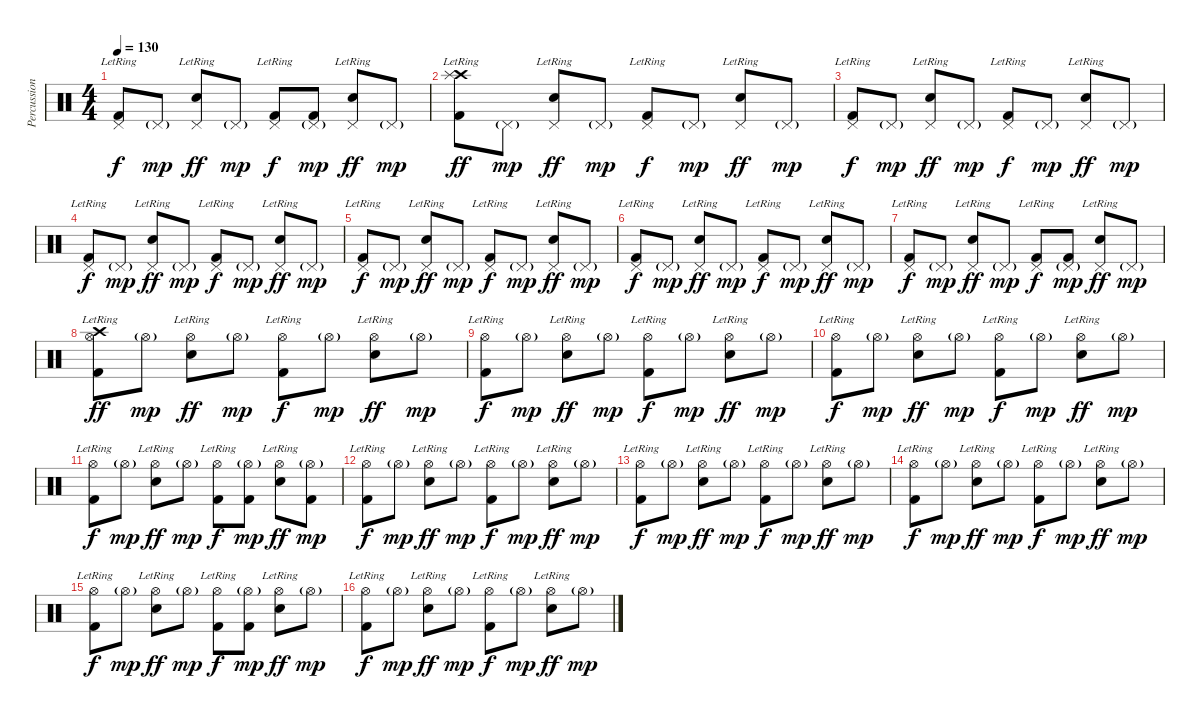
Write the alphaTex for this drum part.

\track ("Percussion" "Percussion") {instrument percussion}
\staff {score}
\articulation defaults
\ts (4 4)
\tempo 130
\clef neutral
\ks c
("Pedal Hi-Hat (hit)"{lr} "Kick (hit) 2").8{dy f} "Pedal Hi-Hat (hit)"{g}.8{dy mp} ("Pedal Hi-Hat (hit)"{lr} "Snare (hit) 2").8{dy ff} "Pedal Hi-Hat (hit)"{g}.8{dy mp} ("Pedal Hi-Hat (hit)"{lr} "Kick (hit) 2").8{dy f} ("Pedal Hi-Hat (hit)"{g} "Kick (hit) 2").8{dy mp} ("Pedal Hi-Hat (hit)"{lr} "Snare (hit) 2").8{dy ff} "Pedal Hi-Hat (hit)"{g}.8{dy mp} |
("Crash high (hit)"{lr} "Splash (hit)"{lr} "Kick (hit) 2").8{dy ff} "Pedal Hi-Hat (hit)"{g}.8{dy mp} ("Pedal Hi-Hat (hit)"{lr} "Snare (hit) 2").8{dy ff} "Pedal Hi-Hat (hit)"{g}.8{dy mp} ("Pedal Hi-Hat (hit)"{lr} "Kick (hit) 2").8{dy f} "Pedal Hi-Hat (hit)"{g}.8{dy mp} ("Pedal Hi-Hat (hit)"{lr} "Snare (hit) 2").8{dy ff} "Pedal Hi-Hat (hit)"{g}.8{dy mp} |
("Pedal Hi-Hat (hit)"{lr} "Kick (hit) 2").8{dy f} "Pedal Hi-Hat (hit)"{g}.8{dy mp} ("Pedal Hi-Hat (hit)"{lr} "Snare (hit) 2").8{dy ff} "Pedal Hi-Hat (hit)"{g}.8{dy mp} ("Pedal Hi-Hat (hit)"{lr} "Kick (hit) 2").8{dy f} "Pedal Hi-Hat (hit)"{g}.8{dy mp} ("Pedal Hi-Hat (hit)"{lr} "Snare (hit) 2").8{dy ff} "Pedal Hi-Hat (hit)"{g}.8{dy mp} |
("Pedal Hi-Hat (hit)"{lr} "Kick (hit) 2").8{dy f} "Pedal Hi-Hat (hit)"{g}.8{dy mp} ("Pedal Hi-Hat (hit)"{lr} "Snare (hit) 2").8{dy ff} "Pedal Hi-Hat (hit)"{g}.8{dy mp} ("Pedal Hi-Hat (hit)"{lr} "Kick (hit) 2").8{dy f} "Pedal Hi-Hat (hit)"{g}.8{dy mp} ("Pedal Hi-Hat (hit)"{lr} "Snare (hit) 2").8{dy ff} "Pedal Hi-Hat (hit)"{g}.8{dy mp} |
("Pedal Hi-Hat (hit)"{lr} "Kick (hit) 2").8{dy f} "Pedal Hi-Hat (hit)"{g}.8{dy mp} ("Pedal Hi-Hat (hit)"{lr} "Snare (hit) 2").8{dy ff} "Pedal Hi-Hat (hit)"{g}.8{dy mp} ("Pedal Hi-Hat (hit)"{lr} "Kick (hit) 2").8{dy f} "Pedal Hi-Hat (hit)"{g}.8{dy mp} ("Pedal Hi-Hat (hit)"{lr} "Snare (hit) 2").8{dy ff} "Pedal Hi-Hat (hit)"{g}.8{dy mp} |
("Pedal Hi-Hat (hit)"{lr} "Kick (hit) 2").8{dy f} "Pedal Hi-Hat (hit)"{g}.8{dy mp} ("Pedal Hi-Hat (hit)"{lr} "Snare (hit) 2").8{dy ff} "Pedal Hi-Hat (hit)"{g}.8{dy mp} ("Pedal Hi-Hat (hit)"{lr} "Kick (hit) 2").8{dy f} "Pedal Hi-Hat (hit)"{g}.8{dy mp} ("Pedal Hi-Hat (hit)"{lr} "Snare (hit) 2").8{dy ff} "Pedal Hi-Hat (hit)"{g}.8{dy mp} |
("Pedal Hi-Hat (hit)"{lr} "Kick (hit) 2").8{dy f} "Pedal Hi-Hat (hit)"{g}.8{dy mp} ("Pedal Hi-Hat (hit)"{lr} "Snare (hit) 2").8{dy ff} "Pedal Hi-Hat (hit)"{g}.8{dy mp} ("Pedal Hi-Hat (hit)"{lr} "Kick (hit) 2").8{dy f} ("Pedal Hi-Hat (hit)"{g} "Kick (hit) 2").8{dy mp} ("Pedal Hi-Hat (hit)"{lr} "Snare (hit) 2").8{dy ff} "Pedal Hi-Hat (hit)"{g}.8{dy mp} |
("Hi-Hat (open)"{lr} "Crash high (hit)" "Kick (hit) 2").8{dy ff} "Hi-Hat (open)"{g}.8{dy mp} ("Hi-Hat (open)"{lr} "Snare (hit) 2").8{dy ff} "Hi-Hat (open)"{g}.8{dy mp} ("Hi-Hat (open)"{lr} "Kick (hit) 2").8{dy f} "Hi-Hat (open)"{g}.8{dy mp} ("Hi-Hat (open)"{lr} "Snare (hit) 2").8{dy ff} "Hi-Hat (open)"{g}.8{dy mp} |
("Hi-Hat (open)"{lr} "Kick (hit) 2").8{dy f} "Hi-Hat (open)"{g}.8{dy mp} ("Hi-Hat (open)"{lr} "Snare (hit) 2").8{dy ff} "Hi-Hat (open)"{g}.8{dy mp} ("Hi-Hat (open)"{lr} "Kick (hit) 2").8{dy f} "Hi-Hat (open)"{g}.8{dy mp} ("Hi-Hat (open)"{lr} "Snare (hit) 2").8{dy ff} "Hi-Hat (open)"{g}.8{dy mp} |
("Hi-Hat (open)"{lr} "Kick (hit) 2").8{dy f} "Hi-Hat (open)"{g}.8{dy mp} ("Hi-Hat (open)"{lr} "Snare (hit) 2").8{dy ff} "Hi-Hat (open)"{g}.8{dy mp} ("Hi-Hat (open)"{lr} "Kick (hit) 2").8{dy f} "Hi-Hat (open)"{g}.8{dy mp} ("Hi-Hat (open)"{lr} "Snare (hit) 2").8{dy ff} "Hi-Hat (open)"{g}.8{dy mp} |
("Hi-Hat (open)"{lr} "Kick (hit) 2").8{dy f} "Hi-Hat (open)"{g}.8{dy mp} ("Hi-Hat (open)"{lr} "Snare (hit) 2").8{dy ff} "Hi-Hat (open)"{g}.8{dy mp} ("Hi-Hat (open)"{lr} "Kick (hit) 2").8{dy f} ("Hi-Hat (open)"{g} "Kick (hit) 2").8{dy mp} ("Hi-Hat (open)"{lr} "Snare (hit) 2").8{dy ff} ("Hi-Hat (open)"{g} "Kick (hit) 2").8{dy mp} |
("Hi-Hat (open)"{lr} "Kick (hit) 2").8{dy f} "Hi-Hat (open)"{g}.8{dy mp} ("Hi-Hat (open)"{lr} "Snare (hit) 2").8{dy ff} "Hi-Hat (open)"{g}.8{dy mp} ("Hi-Hat (open)"{lr} "Kick (hit) 2").8{dy f} "Hi-Hat (open)"{g}.8{dy mp} ("Hi-Hat (open)"{lr} "Snare (hit) 2").8{dy ff} "Hi-Hat (open)"{g}.8{dy mp} |
("Hi-Hat (open)"{lr} "Kick (hit) 2").8{dy f} "Hi-Hat (open)"{g}.8{dy mp} ("Hi-Hat (open)"{lr} "Snare (hit) 2").8{dy ff} "Hi-Hat (open)"{g}.8{dy mp} ("Hi-Hat (open)"{lr} "Kick (hit) 2").8{dy f} "Hi-Hat (open)"{g}.8{dy mp} ("Hi-Hat (open)"{lr} "Snare (hit) 2").8{dy ff} "Hi-Hat (open)"{g}.8{dy mp} |
("Hi-Hat (open)"{lr} "Kick (hit) 2").8{dy f} "Hi-Hat (open)"{g}.8{dy mp} ("Hi-Hat (open)"{lr} "Snare (hit) 2").8{dy ff} "Hi-Hat (open)"{g}.8{dy mp} ("Hi-Hat (open)"{lr} "Kick (hit) 2").8{dy f} "Hi-Hat (open)"{g}.8{dy mp} ("Hi-Hat (open)"{lr} "Snare (hit) 2").8{dy ff} "Hi-Hat (open)"{g}.8{dy mp} |
("Hi-Hat (open)"{lr} "Kick (hit) 2").8{dy f} "Hi-Hat (open)"{g}.8{dy mp} ("Hi-Hat (open)"{lr} "Snare (hit) 2").8{dy ff} "Hi-Hat (open)"{g}.8{dy mp} ("Hi-Hat (open)"{lr} "Kick (hit) 2").8{dy f} ("Hi-Hat (open)"{g} "Kick (hit) 2").8{dy mp} ("Hi-Hat (open)"{lr} "Snare (hit) 2").8{dy ff} "Hi-Hat (open)"{g}.8{dy mp} |
("Hi-Hat (open)"{lr} "Kick (hit) 2").8{dy f} "Hi-Hat (open)"{g}.8{dy mp} ("Hi-Hat (open)"{lr} "Snare (hit) 2").8{dy ff} "Hi-Hat (open)"{g}.8{dy mp} ("Hi-Hat (open)"{lr} "Kick (hit) 2").8{dy f} "Hi-Hat (open)"{g}.8{dy mp} ("Hi-Hat (open)"{lr} "Snare (hit) 2").8{dy ff} "Hi-Hat (open)"{g}.8{dy mp}
